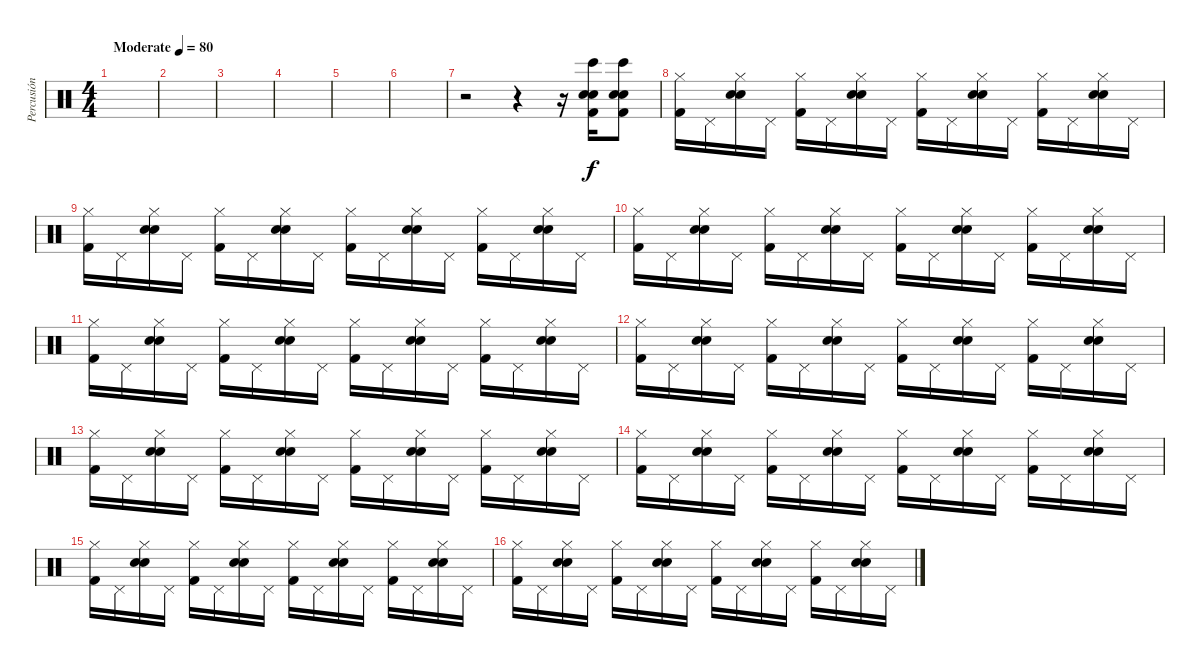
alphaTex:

\track ("Percusión" "Percusión") {instrument percussion}
\staff {score}
\articulation defaults
\ts (4 4)
\tempo (80 "Moderate")
\clef neutral
\ks c
|
|
|
|
|
|
r.2 r.4 r.16 ("Hand Clap (hit)" "Electric Snare (hit)" "Kick (hit) 2" "Bongo High (hit)").16 ("Hand Clap (hit)" "Electric Snare (hit)" "Kick (hit) 2" "Bongo High (hit)").8 |
("Hi-Hat (closed)" "Kick (hit) 2").16 "Pedal Hi-Hat (hit)".16 ("Hi-Hat (closed)" "Hand Clap (hit)" "Electric Snare (hit)").16 "Pedal Hi-Hat (hit)".16 ("Hi-Hat (closed)" "Kick (hit) 2").16 "Pedal Hi-Hat (hit)".16 ("Hi-Hat (closed)" "Hand Clap (hit)" "Electric Snare (hit)").16 "Pedal Hi-Hat (hit)".16 ("Hi-Hat (closed)" "Kick (hit) 2").16 "Pedal Hi-Hat (hit)".16 ("Hi-Hat (closed)" "Hand Clap (hit)" "Electric Snare (hit)").16 "Pedal Hi-Hat (hit)".16 ("Hi-Hat (closed)" "Kick (hit) 2").16 "Pedal Hi-Hat (hit)".16 ("Hi-Hat (closed)" "Hand Clap (hit)" "Electric Snare (hit)").16 "Pedal Hi-Hat (hit)".16 |
("Hi-Hat (closed)" "Kick (hit) 2").16 "Pedal Hi-Hat (hit)".16 ("Hi-Hat (closed)" "Hand Clap (hit)" "Electric Snare (hit)").16 "Pedal Hi-Hat (hit)".16 ("Hi-Hat (closed)" "Kick (hit) 2").16 "Pedal Hi-Hat (hit)".16 ("Hi-Hat (closed)" "Hand Clap (hit)" "Electric Snare (hit)").16 "Pedal Hi-Hat (hit)".16 ("Hi-Hat (closed)" "Kick (hit) 2").16 "Pedal Hi-Hat (hit)".16 ("Hi-Hat (closed)" "Hand Clap (hit)" "Electric Snare (hit)").16 "Pedal Hi-Hat (hit)".16 ("Hi-Hat (closed)" "Kick (hit) 2").16 "Pedal Hi-Hat (hit)".16 ("Hi-Hat (closed)" "Hand Clap (hit)" "Electric Snare (hit)").16 "Pedal Hi-Hat (hit)".16 |
("Hi-Hat (closed)" "Kick (hit) 2").16 "Pedal Hi-Hat (hit)".16 ("Hi-Hat (closed)" "Hand Clap (hit)" "Electric Snare (hit)").16 "Pedal Hi-Hat (hit)".16 ("Hi-Hat (closed)" "Kick (hit) 2").16 "Pedal Hi-Hat (hit)".16 ("Hi-Hat (closed)" "Hand Clap (hit)" "Electric Snare (hit)").16 "Pedal Hi-Hat (hit)".16 ("Hi-Hat (closed)" "Kick (hit) 2").16 "Pedal Hi-Hat (hit)".16 ("Hi-Hat (closed)" "Hand Clap (hit)" "Electric Snare (hit)").16 "Pedal Hi-Hat (hit)".16 ("Hi-Hat (closed)" "Kick (hit) 2").16 "Pedal Hi-Hat (hit)".16 ("Hi-Hat (closed)" "Hand Clap (hit)" "Electric Snare (hit)").16 "Pedal Hi-Hat (hit)".16 |
("Hi-Hat (closed)" "Kick (hit) 2").16 "Pedal Hi-Hat (hit)".16 ("Hi-Hat (closed)" "Hand Clap (hit)" "Electric Snare (hit)").16 "Pedal Hi-Hat (hit)".16 ("Hi-Hat (closed)" "Kick (hit) 2").16 "Pedal Hi-Hat (hit)".16 ("Hi-Hat (closed)" "Hand Clap (hit)" "Electric Snare (hit)").16 "Pedal Hi-Hat (hit)".16 ("Hi-Hat (closed)" "Kick (hit) 2").16 "Pedal Hi-Hat (hit)".16 ("Hi-Hat (closed)" "Hand Clap (hit)" "Electric Snare (hit)").16 "Pedal Hi-Hat (hit)".16 ("Hi-Hat (closed)" "Kick (hit) 2").16 "Pedal Hi-Hat (hit)".16 ("Hi-Hat (closed)" "Hand Clap (hit)" "Electric Snare (hit)").16 "Pedal Hi-Hat (hit)".16 |
("Hi-Hat (closed)" "Kick (hit) 2").16 "Pedal Hi-Hat (hit)".16 ("Hi-Hat (closed)" "Hand Clap (hit)" "Electric Snare (hit)").16 "Pedal Hi-Hat (hit)".16 ("Hi-Hat (closed)" "Kick (hit) 2").16 "Pedal Hi-Hat (hit)".16 ("Hi-Hat (closed)" "Hand Clap (hit)" "Electric Snare (hit)").16 "Pedal Hi-Hat (hit)".16 ("Hi-Hat (closed)" "Kick (hit) 2").16 "Pedal Hi-Hat (hit)".16 ("Hi-Hat (closed)" "Hand Clap (hit)" "Electric Snare (hit)").16 "Pedal Hi-Hat (hit)".16 ("Hi-Hat (closed)" "Kick (hit) 2").16 "Pedal Hi-Hat (hit)".16 ("Hi-Hat (closed)" "Hand Clap (hit)" "Electric Snare (hit)").16 "Pedal Hi-Hat (hit)".16 |
("Hi-Hat (closed)" "Kick (hit) 2").16 "Pedal Hi-Hat (hit)".16 ("Hi-Hat (closed)" "Hand Clap (hit)" "Electric Snare (hit)").16 "Pedal Hi-Hat (hit)".16 ("Hi-Hat (closed)" "Kick (hit) 2").16 "Pedal Hi-Hat (hit)".16 ("Hi-Hat (closed)" "Hand Clap (hit)" "Electric Snare (hit)").16 "Pedal Hi-Hat (hit)".16 ("Hi-Hat (closed)" "Kick (hit) 2").16 "Pedal Hi-Hat (hit)".16 ("Hi-Hat (closed)" "Hand Clap (hit)" "Electric Snare (hit)").16 "Pedal Hi-Hat (hit)".16 ("Hi-Hat (closed)" "Kick (hit) 2").16 "Pedal Hi-Hat (hit)".16 ("Hi-Hat (closed)" "Hand Clap (hit)" "Electric Snare (hit)").16 "Pedal Hi-Hat (hit)".16 |
("Hi-Hat (closed)" "Kick (hit) 2").16 "Pedal Hi-Hat (hit)".16 ("Hi-Hat (closed)" "Hand Clap (hit)" "Electric Snare (hit)").16 "Pedal Hi-Hat (hit)".16 ("Hi-Hat (closed)" "Kick (hit) 2").16 "Pedal Hi-Hat (hit)".16 ("Hi-Hat (closed)" "Hand Clap (hit)" "Electric Snare (hit)").16 "Pedal Hi-Hat (hit)".16 ("Hi-Hat (closed)" "Kick (hit) 2").16 "Pedal Hi-Hat (hit)".16 ("Hi-Hat (closed)" "Hand Clap (hit)" "Electric Snare (hit)").16 "Pedal Hi-Hat (hit)".16 ("Hi-Hat (closed)" "Kick (hit) 2").16 "Pedal Hi-Hat (hit)".16 ("Hi-Hat (closed)" "Hand Clap (hit)" "Electric Snare (hit)").16 "Pedal Hi-Hat (hit)".16 |
("Hi-Hat (closed)" "Kick (hit) 2").16 "Pedal Hi-Hat (hit)".16 ("Hi-Hat (closed)" "Hand Clap (hit)" "Electric Snare (hit)").16 "Pedal Hi-Hat (hit)".16 ("Hi-Hat (closed)" "Kick (hit) 2").16 "Pedal Hi-Hat (hit)".16 ("Hi-Hat (closed)" "Hand Clap (hit)" "Electric Snare (hit)").16 "Pedal Hi-Hat (hit)".16 ("Hi-Hat (closed)" "Kick (hit) 2").16 "Pedal Hi-Hat (hit)".16 ("Hi-Hat (closed)" "Hand Clap (hit)" "Electric Snare (hit)").16 "Pedal Hi-Hat (hit)".16 ("Hi-Hat (closed)" "Kick (hit) 2").16 "Pedal Hi-Hat (hit)".16 ("Hi-Hat (closed)" "Hand Clap (hit)" "Electric Snare (hit)").16 "Pedal Hi-Hat (hit)".16 |
("Hi-Hat (closed)" "Kick (hit) 2").16 "Pedal Hi-Hat (hit)".16 ("Hi-Hat (closed)" "Hand Clap (hit)" "Electric Snare (hit)").16 "Pedal Hi-Hat (hit)".16 ("Hi-Hat (closed)" "Kick (hit) 2").16 "Pedal Hi-Hat (hit)".16 ("Hi-Hat (closed)" "Hand Clap (hit)" "Electric Snare (hit)").16 "Pedal Hi-Hat (hit)".16 ("Hi-Hat (closed)" "Kick (hit) 2").16 "Pedal Hi-Hat (hit)".16 ("Hi-Hat (closed)" "Hand Clap (hit)" "Electric Snare (hit)").16 "Pedal Hi-Hat (hit)".16 ("Hi-Hat (closed)" "Kick (hit) 2").16 "Pedal Hi-Hat (hit)".16 ("Hi-Hat (closed)" "Hand Clap (hit)" "Electric Snare (hit)").16 "Pedal Hi-Hat (hit)".16
